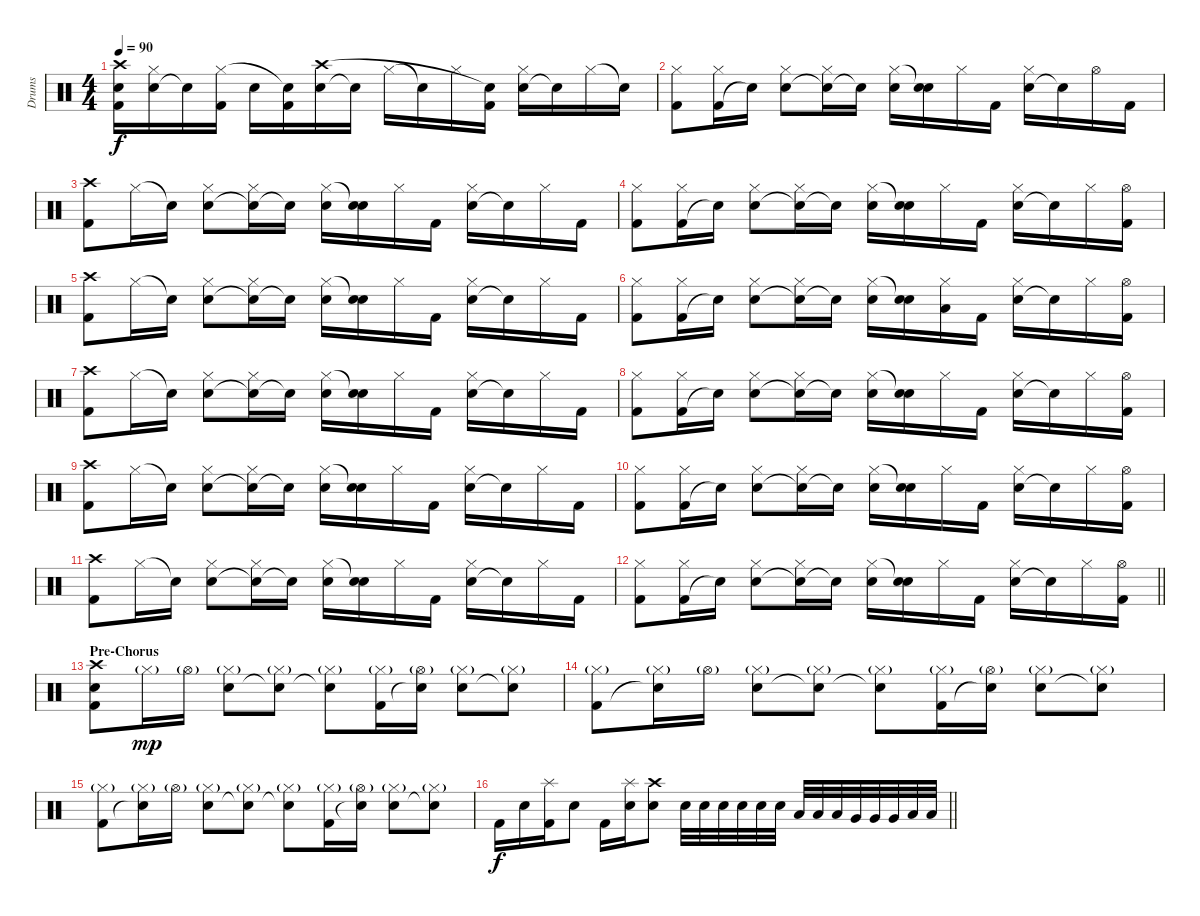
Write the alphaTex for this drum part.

\track ("Drums" "Drums") {instrument percussion}
\staff {score}
\articulation defaults
\ts (4 4)
\tempo 90
\clef neutral
\ks c
("Kick (hit) 2" "Snare (hit) 2" "Crash high (hit)").16{dy f} ("Snare (hit) 2" "Hi-Hat (closed)").16 "Snare (hit)"{t}.16 ("Kick (hit) 2" "Hi-Hat (closed)").16 "Snare (hit) 2".16 ("Kick (hit) 2" "Snare (hit)"{t}).16 ("Snare (hit) 2" "Crash high (hit)").16 "Snare (hit)"{t}.16 "Hi-Hat (closed)".16 "Snare (hit)"{t}.16 "Hi-Hat (closed)".16 ("Kick (hit) 2" "Snare (hit)"{t}).16 ("Snare (hit) 2" "Hi-Hat (closed)").16 "Snare (hit)"{t}.16 "Hi-Hat (closed)".16 "Snare (hit)"{t}.16 |
("Kick (hit) 2" "Hi-Hat (closed)").8 ("Kick (hit) 2" "Hi-Hat (closed)").16 "Snare (hit)"{t}.16 ("Snare (hit) 2" "Hi-Hat (closed)").8 ("Snare (hit)"{t} "Hi-Hat (closed)").16 "Snare (hit)"{t}.16 ("Snare (hit) 2" "Hi-Hat (closed)").16 ("Snare (hit) 2" "Snare (hit)"{t}).16 "Hi-Hat (closed)".16 "Kick (hit) 2".16 ("Snare (hit) 2" "Hi-Hat (closed)").16 "Snare (hit)"{t}.16 "Hi-Hat (open)".16 "Kick (hit) 2".16 |
("Kick (hit) 2" "Crash high (hit)").8 "Hi-Hat (closed)".16 "Snare (hit)"{t}.16 ("Snare (hit) 2" "Hi-Hat (closed)").8 ("Snare (hit)"{t} "Hi-Hat (closed)").16 "Snare (hit)"{t}.16 ("Snare (hit) 2" "Hi-Hat (closed)").16 ("Snare (hit) 2" "Snare (hit)"{t}).16 "Hi-Hat (closed)".16 "Kick (hit) 2".16 ("Snare (hit) 2" "Hi-Hat (closed)").16 "Snare (hit)"{t}.16 "Hi-Hat (closed)".16 "Kick (hit) 2".16 |
("Kick (hit) 2" "Hi-Hat (closed)").8 ("Kick (hit) 2" "Hi-Hat (closed)").16 "Snare (hit)"{t}.16 ("Snare (hit) 2" "Hi-Hat (closed)").8 ("Snare (hit)"{t} "Hi-Hat (closed)").16 "Snare (hit)"{t}.16 ("Snare (hit) 2" "Hi-Hat (closed)").16 ("Snare (hit) 2" "Snare (hit)"{t}).16 "Hi-Hat (closed)".16 "Kick (hit) 2".16 ("Snare (hit) 2" "Hi-Hat (closed)").16 "Snare (hit)"{t}.16 "Hi-Hat (closed)".16 ("Kick (hit) 2" "Hi-Hat (open)").16 |
("Kick (hit) 2" "Crash high (hit)").8 "Hi-Hat (closed)".16 "Snare (hit)"{t}.16 ("Snare (hit) 2" "Hi-Hat (closed)").8 ("Snare (hit)"{t} "Hi-Hat (closed)").16 "Snare (hit)"{t}.16 ("Snare (hit) 2" "Hi-Hat (closed)").16 ("Snare (hit) 2" "Snare (hit)"{t}).16 "Hi-Hat (closed)".16 "Kick (hit) 2".16 ("Snare (hit) 2" "Hi-Hat (closed)").16 "Snare (hit)"{t}.16 "Hi-Hat (closed)".16 "Kick (hit) 2".16 |
("Kick (hit) 2" "Hi-Hat (closed)").8 ("Kick (hit) 2" "Hi-Hat (closed)").16 "Snare (hit)"{t}.16 ("Snare (hit) 2" "Hi-Hat (closed)").8 ("Snare (hit)"{t} "Hi-Hat (closed)").16 "Snare (hit)"{t}.16 ("Snare (hit) 2" "Hi-Hat (closed)").16 ("Snare (hit) 2" "Snare (hit)"{t}).16 ("Low Tom (hit)" "Hi-Hat (closed)").16 "Kick (hit) 2".16 ("Snare (hit) 2" "Hi-Hat (closed)").16 "Snare (hit)"{t}.16 "Hi-Hat (closed)".16 ("Kick (hit) 2" "Hi-Hat (open)").16 |
("Kick (hit) 2" "Crash high (hit)").8 "Hi-Hat (closed)".16 "Snare (hit)"{t}.16 ("Snare (hit) 2" "Hi-Hat (closed)").8 ("Snare (hit)"{t} "Hi-Hat (closed)").16 "Snare (hit)"{t}.16 ("Snare (hit) 2" "Hi-Hat (closed)").16 ("Snare (hit) 2" "Snare (hit)"{t}).16 "Hi-Hat (closed)".16 "Kick (hit) 2".16 ("Snare (hit) 2" "Hi-Hat (closed)").16 "Snare (hit)"{t}.16 "Hi-Hat (closed)".16 "Kick (hit) 2".16 |
("Kick (hit) 2" "Hi-Hat (closed)").8 ("Kick (hit) 2" "Hi-Hat (closed)").16 "Snare (hit)"{t}.16 ("Snare (hit) 2" "Hi-Hat (closed)").8 ("Snare (hit)"{t} "Hi-Hat (closed)").16 "Snare (hit)"{t}.16 ("Snare (hit) 2" "Hi-Hat (closed)").16 ("Snare (hit) 2" "Snare (hit)"{t}).16 "Hi-Hat (closed)".16 "Kick (hit) 2".16 ("Snare (hit) 2" "Hi-Hat (closed)").16 "Snare (hit)"{t}.16 "Hi-Hat (closed)".16 ("Kick (hit) 2" "Hi-Hat (open)").16 |
("Kick (hit) 2" "Crash high (hit)").8 "Hi-Hat (closed)".16 "Snare (hit)"{t}.16 ("Snare (hit) 2" "Hi-Hat (closed)").8 ("Snare (hit)"{t} "Hi-Hat (closed)").16 "Snare (hit)"{t}.16 ("Snare (hit) 2" "Hi-Hat (closed)").16 ("Snare (hit) 2" "Snare (hit)"{t}).16 "Hi-Hat (closed)".16 "Kick (hit) 2".16 ("Snare (hit) 2" "Hi-Hat (closed)").16 "Snare (hit)"{t}.16 "Hi-Hat (closed)".16 "Kick (hit) 2".16 |
("Kick (hit) 2" "Hi-Hat (closed)").8 ("Kick (hit) 2" "Hi-Hat (closed)").16 "Snare (hit)"{t}.16 ("Snare (hit) 2" "Hi-Hat (closed)").8 ("Snare (hit)"{t} "Hi-Hat (closed)").16 "Snare (hit)"{t}.16 ("Snare (hit) 2" "Hi-Hat (closed)").16 ("Snare (hit) 2" "Snare (hit)"{t}).16 "Hi-Hat (closed)".16 "Kick (hit) 2".16 ("Snare (hit) 2" "Hi-Hat (closed)").16 "Snare (hit)"{t}.16 "Hi-Hat (closed)".16 ("Kick (hit) 2" "Hi-Hat (open)").16 |
("Kick (hit) 2" "Crash high (hit)").8 "Hi-Hat (closed)".16 "Snare (hit)"{t}.16 ("Snare (hit) 2" "Hi-Hat (closed)").8 ("Snare (hit)"{t} "Hi-Hat (closed)").16 "Snare (hit)"{t}.16 ("Snare (hit) 2" "Hi-Hat (closed)").16 ("Snare (hit) 2" "Snare (hit)"{t}).16 "Hi-Hat (closed)".16 "Kick (hit) 2".16 ("Snare (hit) 2" "Hi-Hat (closed)").16 "Snare (hit)"{t}.16 "Hi-Hat (closed)".16 "Kick (hit) 2".16 |
\barLineRight lightlight
("Kick (hit) 2" "Hi-Hat (closed)").8 ("Kick (hit) 2" "Hi-Hat (closed)").16 "Snare (hit)"{t}.16 ("Snare (hit) 2" "Hi-Hat (closed)").8 ("Snare (hit)"{t} "Hi-Hat (closed)").16 "Snare (hit)"{t}.16 ("Snare (hit) 2" "Hi-Hat (closed)").16 ("Snare (hit) 2" "Snare (hit)"{t}).16 "Hi-Hat (closed)".16 "Kick (hit) 2".16 ("Snare (hit) 2" "Hi-Hat (closed)").16 "Snare (hit)"{t}.16 "Hi-Hat (closed)".16 ("Kick (hit) 2" "Hi-Hat (open)").16 |
\section ("" "Pre-Chorus")
("Kick (hit) 2" "Electric Snare (hit)" "Crash high (hit)").8 "Hi-Hat (closed)"{g}.16{dy mp} "Hi-Hat (open)"{g}.16 ("Snare (hit) 2" "Hi-Hat (closed)"{g}).8 ("Snare (hit)"{t} "Hi-Hat (closed)"{g}).8 ("Snare (hit)"{t} "Hi-Hat (closed)"{g}).8 ("Kick (hit) 2" "Hi-Hat (closed)"{g}).16 ("Snare (hit)"{t} "Hi-Hat (open)"{g}).16 ("Snare (hit) 2" "Hi-Hat (closed)"{g}).8 ("Snare (hit)"{t} "Hi-Hat (closed)"{g}).8 |
("Kick (hit) 2" "Hi-Hat (closed)"{g}).8 ("Snare (hit)"{t} "Hi-Hat (closed)"{g}).16 "Hi-Hat (open)"{g}.16 ("Snare (hit) 2" "Hi-Hat (closed)"{g}).8 ("Snare (hit)"{t} "Hi-Hat (closed)"{g}).8 ("Snare (hit)"{t} "Hi-Hat (closed)"{g}).8 ("Kick (hit) 2" "Hi-Hat (closed)"{g}).16 ("Snare (hit)"{t} "Hi-Hat (open)"{g}).16 ("Snare (hit) 2" "Hi-Hat (closed)"{g}).8 ("Snare (hit)"{t} "Hi-Hat (closed)"{g}).8 |
("Kick (hit) 2" "Hi-Hat (closed)"{g}).8 ("Snare (hit)"{t} "Hi-Hat (closed)"{g}).16 "Hi-Hat (open)"{g}.16 ("Snare (hit) 2" "Hi-Hat (closed)"{g}).8 ("Snare (hit)"{t} "Hi-Hat (closed)"{g}).8 ("Snare (hit)"{t} "Hi-Hat (closed)"{g}).8 ("Kick (hit) 2" "Hi-Hat (closed)"{g}).16 ("Snare (hit)"{t} "Hi-Hat (open)"{g}).16 ("Snare (hit) 2" "Hi-Hat (closed)"{g}).8 ("Snare (hit)"{t} "Hi-Hat (closed)"{g}).8 |
\barLineRight lightlight "Kick (hit) 2".16{dy f} "Snare (hit) 2".16
("Kick (hit) 2" "Splash (hit)").16 "Snare (hit) 2".8 "Kick (hit) 2".16 ("Snare (hit) 2" "Splash (hit)").16 ("Snare (hit) 2" "Crash high (hit)").8 "Snare (hit) 2".32 "Snare (hit) 2".32 "Snare (hit) 2".32 "Snare (hit) 2".32 "Snare (hit) 2".32 "Snare (hit) 2".32 "Low Tom (hit)".32 "Low Tom (hit)".32 "Low Tom (hit)".32 "Very Low Tom (hit)".32 "Very Low Tom (hit)".32 "Very Low Tom (hit)".32 "Low Floor Tom (hit)".32 "Low Floor Tom (hit)".32
